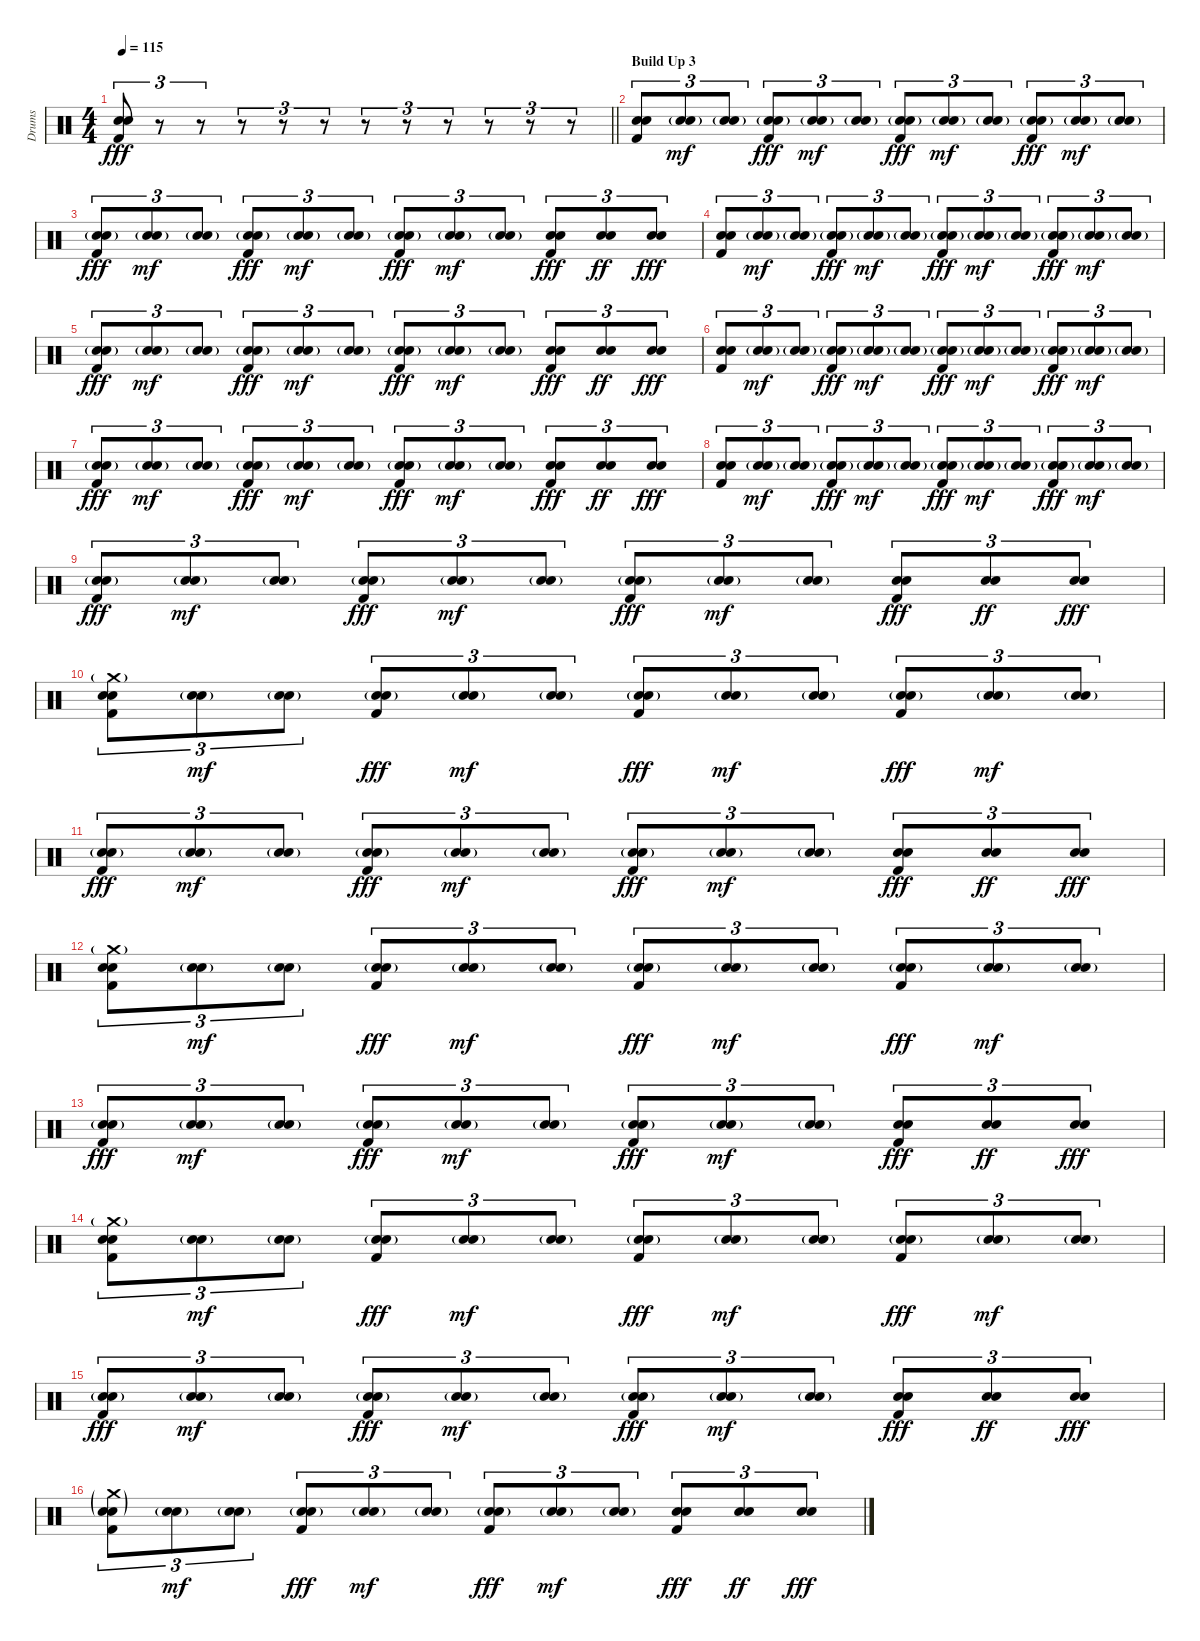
\track ("Drums" "Drums") {instrument percussion}
\staff {score}
\articulation defaults
\ts (4 4)
\tempo 115
\clef neutral
\barLineRight lightlight
\ks c
("Snare (hit) 2" "Electric Snare (hit)" "Kick (hit) 2").8{tu (3 2) dy fff} r.8{tu (3 2)} r.8{tu (3 2)} r.8{tu (3 2)} r.8{tu (3 2)} r.8{tu (3 2)} r.8{tu (3 2)} r.8{tu (3 2)} r.8{tu (3 2)} r.8{tu (3 2)} r.8{tu (3 2)} r.8{tu (3 2)} |
\section ("" "Build Up 3")
("Snare (hit) 2" "Electric Snare (hit)" "Kick (hit) 2").8{tu (3 2)} ("Snare (hit) 2"{g} "Electric Snare (hit)").8{tu (3 2) dy mf} ("Snare (hit) 2"{g} "Electric Snare (hit)").8{tu (3 2)} ("Snare (hit) 2"{g} "Electric Snare (hit)" "Kick (hit) 2").8{tu (3 2) dy fff} ("Snare (hit) 2"{g} "Electric Snare (hit)").8{tu (3 2) dy mf} ("Snare (hit) 2"{g} "Electric Snare (hit)").8{tu (3 2)} ("Snare (hit) 2"{g} "Electric Snare (hit)" "Kick (hit) 2").8{tu (3 2) dy fff} ("Snare (hit) 2"{g} "Electric Snare (hit)").8{tu (3 2) dy mf} ("Snare (hit) 2"{g} "Electric Snare (hit)").8{tu (3 2)} ("Snare (hit) 2"{g} "Electric Snare (hit)" "Kick (hit) 2").8{tu (3 2) dy fff} ("Snare (hit) 2"{g} "Electric Snare (hit)").8{tu (3 2) dy mf} ("Snare (hit) 2"{g} "Electric Snare (hit)").8{tu (3 2)} |
("Snare (hit) 2"{g} "Electric Snare (hit)" "Kick (hit) 2").8{tu (3 2) dy fff} ("Snare (hit) 2"{g} "Electric Snare (hit)").8{tu (3 2) dy mf} ("Snare (hit) 2"{g} "Electric Snare (hit)").8{tu (3 2)} ("Snare (hit) 2"{g} "Electric Snare (hit)" "Kick (hit) 2").8{tu (3 2) dy fff} ("Snare (hit) 2"{g} "Electric Snare (hit)").8{tu (3 2) dy mf} ("Snare (hit) 2"{g} "Electric Snare (hit)").8{tu (3 2)} ("Snare (hit) 2"{g} "Electric Snare (hit)" "Kick (hit) 2").8{tu (3 2) dy fff} ("Snare (hit) 2"{g} "Electric Snare (hit)").8{tu (3 2) dy mf} ("Snare (hit) 2"{g} "Electric Snare (hit)").8{tu (3 2)} ("Snare (hit) 2" "Electric Snare (hit)" "Kick (hit) 2").8{tu (3 2) dy fff} ("Snare (hit) 2" "Electric Snare (hit)").8{tu (3 2) dy ff} ("Snare (hit) 2" "Electric Snare (hit)").8{tu (3 2) dy fff} |
("Snare (hit) 2" "Electric Snare (hit)" "Kick (hit) 2").8{tu (3 2)} ("Snare (hit) 2"{g} "Electric Snare (hit)").8{tu (3 2) dy mf} ("Snare (hit) 2"{g} "Electric Snare (hit)").8{tu (3 2)} ("Snare (hit) 2"{g} "Electric Snare (hit)" "Kick (hit) 2").8{tu (3 2) dy fff} ("Snare (hit) 2"{g} "Electric Snare (hit)").8{tu (3 2) dy mf} ("Snare (hit) 2"{g} "Electric Snare (hit)").8{tu (3 2)} ("Snare (hit) 2"{g} "Electric Snare (hit)" "Kick (hit) 2").8{tu (3 2) dy fff} ("Snare (hit) 2"{g} "Electric Snare (hit)").8{tu (3 2) dy mf} ("Snare (hit) 2"{g} "Electric Snare (hit)").8{tu (3 2)} ("Snare (hit) 2"{g} "Electric Snare (hit)" "Kick (hit) 2").8{tu (3 2) dy fff} ("Snare (hit) 2"{g} "Electric Snare (hit)").8{tu (3 2) dy mf} ("Snare (hit) 2"{g} "Electric Snare (hit)").8{tu (3 2)} |
("Snare (hit) 2"{g} "Electric Snare (hit)" "Kick (hit) 2").8{tu (3 2) dy fff} ("Snare (hit) 2"{g} "Electric Snare (hit)").8{tu (3 2) dy mf} ("Snare (hit) 2"{g} "Electric Snare (hit)").8{tu (3 2)} ("Snare (hit) 2"{g} "Electric Snare (hit)" "Kick (hit) 2").8{tu (3 2) dy fff} ("Snare (hit) 2"{g} "Electric Snare (hit)").8{tu (3 2) dy mf} ("Snare (hit) 2"{g} "Electric Snare (hit)").8{tu (3 2)} ("Snare (hit) 2"{g} "Electric Snare (hit)" "Kick (hit) 2").8{tu (3 2) dy fff} ("Snare (hit) 2"{g} "Electric Snare (hit)").8{tu (3 2) dy mf} ("Snare (hit) 2"{g} "Electric Snare (hit)").8{tu (3 2)} ("Snare (hit) 2" "Electric Snare (hit)" "Kick (hit) 2").8{tu (3 2) dy fff} ("Snare (hit) 2" "Electric Snare (hit)").8{tu (3 2) dy ff} ("Snare (hit) 2" "Electric Snare (hit)").8{tu (3 2) dy fff} |
("Snare (hit) 2" "Electric Snare (hit)" "Kick (hit) 2").8{tu (3 2)} ("Snare (hit) 2"{g} "Electric Snare (hit)").8{tu (3 2) dy mf} ("Snare (hit) 2"{g} "Electric Snare (hit)").8{tu (3 2)} ("Snare (hit) 2"{g} "Electric Snare (hit)" "Kick (hit) 2").8{tu (3 2) dy fff} ("Snare (hit) 2"{g} "Electric Snare (hit)").8{tu (3 2) dy mf} ("Snare (hit) 2"{g} "Electric Snare (hit)").8{tu (3 2)} ("Snare (hit) 2"{g} "Electric Snare (hit)" "Kick (hit) 2").8{tu (3 2) dy fff} ("Snare (hit) 2"{g} "Electric Snare (hit)").8{tu (3 2) dy mf} ("Snare (hit) 2"{g} "Electric Snare (hit)").8{tu (3 2)} ("Snare (hit) 2"{g} "Electric Snare (hit)" "Kick (hit) 2").8{tu (3 2) dy fff} ("Snare (hit) 2"{g} "Electric Snare (hit)").8{tu (3 2) dy mf} ("Snare (hit) 2"{g} "Electric Snare (hit)").8{tu (3 2)} |
("Snare (hit) 2"{g} "Electric Snare (hit)" "Kick (hit) 2").8{tu (3 2) dy fff} ("Snare (hit) 2"{g} "Electric Snare (hit)").8{tu (3 2) dy mf} ("Snare (hit) 2"{g} "Electric Snare (hit)").8{tu (3 2)} ("Snare (hit) 2"{g} "Electric Snare (hit)" "Kick (hit) 2").8{tu (3 2) dy fff} ("Snare (hit) 2"{g} "Electric Snare (hit)").8{tu (3 2) dy mf} ("Snare (hit) 2"{g} "Electric Snare (hit)").8{tu (3 2)} ("Snare (hit) 2"{g} "Electric Snare (hit)" "Kick (hit) 2").8{tu (3 2) dy fff} ("Snare (hit) 2"{g} "Electric Snare (hit)").8{tu (3 2) dy mf} ("Snare (hit) 2"{g} "Electric Snare (hit)").8{tu (3 2)} ("Snare (hit) 2" "Electric Snare (hit)" "Kick (hit) 2").8{tu (3 2) dy fff} ("Snare (hit) 2" "Electric Snare (hit)").8{tu (3 2) dy ff} ("Snare (hit) 2" "Electric Snare (hit)").8{tu (3 2) dy fff} |
("Snare (hit) 2" "Electric Snare (hit)" "Kick (hit) 2").8{tu (3 2)} ("Snare (hit) 2"{g} "Electric Snare (hit)").8{tu (3 2) dy mf} ("Snare (hit) 2"{g} "Electric Snare (hit)").8{tu (3 2)} ("Snare (hit) 2"{g} "Electric Snare (hit)" "Kick (hit) 2").8{tu (3 2) dy fff} ("Snare (hit) 2"{g} "Electric Snare (hit)").8{tu (3 2) dy mf} ("Snare (hit) 2"{g} "Electric Snare (hit)").8{tu (3 2)} ("Snare (hit) 2"{g} "Electric Snare (hit)" "Kick (hit) 2").8{tu (3 2) dy fff} ("Snare (hit) 2"{g} "Electric Snare (hit)").8{tu (3 2) dy mf} ("Snare (hit) 2"{g} "Electric Snare (hit)").8{tu (3 2)} ("Snare (hit) 2"{g} "Electric Snare (hit)" "Kick (hit) 2").8{tu (3 2) dy fff} ("Snare (hit) 2"{g} "Electric Snare (hit)").8{tu (3 2) dy mf} ("Snare (hit) 2"{g} "Electric Snare (hit)").8{tu (3 2)} |
("Snare (hit) 2"{g} "Electric Snare (hit)" "Kick (hit) 2").8{tu (3 2) dy fff} ("Snare (hit) 2"{g} "Electric Snare (hit)").8{tu (3 2) dy mf} ("Snare (hit) 2"{g} "Electric Snare (hit)").8{tu (3 2)} ("Snare (hit) 2"{g} "Electric Snare (hit)" "Kick (hit) 2").8{tu (3 2) dy fff} ("Snare (hit) 2"{g} "Electric Snare (hit)").8{tu (3 2) dy mf} ("Snare (hit) 2"{g} "Electric Snare (hit)").8{tu (3 2)} ("Snare (hit) 2"{g} "Electric Snare (hit)" "Kick (hit) 2").8{tu (3 2) dy fff} ("Snare (hit) 2"{g} "Electric Snare (hit)").8{tu (3 2) dy mf} ("Snare (hit) 2"{g} "Electric Snare (hit)").8{tu (3 2)} ("Snare (hit) 2" "Electric Snare (hit)" "Kick (hit) 2").8{tu (3 2) dy fff} ("Snare (hit) 2" "Electric Snare (hit)").8{tu (3 2) dy ff} ("Snare (hit) 2" "Electric Snare (hit)").8{tu (3 2) dy fff} |
("Crash medium (hit)"{g} "Snare (hit) 2" "Electric Snare (hit)" "Kick (hit) 2").8{tu (3 2)} ("Snare (hit) 2"{g} "Electric Snare (hit)").8{tu (3 2) dy mf} ("Snare (hit) 2"{g} "Electric Snare (hit)").8{tu (3 2)} ("Snare (hit) 2"{g} "Electric Snare (hit)" "Kick (hit) 2").8{tu (3 2) dy fff} ("Snare (hit) 2"{g} "Electric Snare (hit)").8{tu (3 2) dy mf} ("Snare (hit) 2"{g} "Electric Snare (hit)").8{tu (3 2)} ("Snare (hit) 2"{g} "Electric Snare (hit)" "Kick (hit) 2").8{tu (3 2) dy fff} ("Snare (hit) 2"{g} "Electric Snare (hit)").8{tu (3 2) dy mf} ("Snare (hit) 2"{g} "Electric Snare (hit)").8{tu (3 2)} ("Snare (hit) 2"{g} "Electric Snare (hit)" "Kick (hit) 2").8{tu (3 2) dy fff} ("Snare (hit) 2"{g} "Electric Snare (hit)").8{tu (3 2) dy mf} ("Snare (hit) 2"{g} "Electric Snare (hit)").8{tu (3 2)} |
("Snare (hit) 2"{g} "Electric Snare (hit)" "Kick (hit) 2").8{tu (3 2) dy fff} ("Snare (hit) 2"{g} "Electric Snare (hit)").8{tu (3 2) dy mf} ("Snare (hit) 2"{g} "Electric Snare (hit)").8{tu (3 2)} ("Snare (hit) 2"{g} "Electric Snare (hit)" "Kick (hit) 2").8{tu (3 2) dy fff} ("Snare (hit) 2"{g} "Electric Snare (hit)").8{tu (3 2) dy mf} ("Snare (hit) 2"{g} "Electric Snare (hit)").8{tu (3 2)} ("Snare (hit) 2"{g} "Electric Snare (hit)" "Kick (hit) 2").8{tu (3 2) dy fff} ("Snare (hit) 2"{g} "Electric Snare (hit)").8{tu (3 2) dy mf} ("Snare (hit) 2"{g} "Electric Snare (hit)").8{tu (3 2)} ("Snare (hit) 2" "Electric Snare (hit)" "Kick (hit) 2").8{tu (3 2) dy fff} ("Snare (hit) 2" "Electric Snare (hit)").8{tu (3 2) dy ff} ("Snare (hit) 2" "Electric Snare (hit)").8{tu (3 2) dy fff} |
("Crash medium (hit)"{g} "Snare (hit) 2" "Electric Snare (hit)" "Kick (hit) 2").8{tu (3 2)} ("Snare (hit) 2"{g} "Electric Snare (hit)").8{tu (3 2) dy mf} ("Snare (hit) 2"{g} "Electric Snare (hit)").8{tu (3 2)} ("Snare (hit) 2"{g} "Electric Snare (hit)" "Kick (hit) 2").8{tu (3 2) dy fff} ("Snare (hit) 2"{g} "Electric Snare (hit)").8{tu (3 2) dy mf} ("Snare (hit) 2"{g} "Electric Snare (hit)").8{tu (3 2)} ("Snare (hit) 2"{g} "Electric Snare (hit)" "Kick (hit) 2").8{tu (3 2) dy fff} ("Snare (hit) 2"{g} "Electric Snare (hit)").8{tu (3 2) dy mf} ("Snare (hit) 2"{g} "Electric Snare (hit)").8{tu (3 2)} ("Snare (hit) 2"{g} "Electric Snare (hit)" "Kick (hit) 2").8{tu (3 2) dy fff} ("Snare (hit) 2"{g} "Electric Snare (hit)").8{tu (3 2) dy mf} ("Snare (hit) 2"{g} "Electric Snare (hit)").8{tu (3 2)} |
("Snare (hit) 2"{g} "Electric Snare (hit)" "Kick (hit) 2").8{tu (3 2) dy fff} ("Snare (hit) 2"{g} "Electric Snare (hit)").8{tu (3 2) dy mf} ("Snare (hit) 2"{g} "Electric Snare (hit)").8{tu (3 2)} ("Snare (hit) 2"{g} "Electric Snare (hit)" "Kick (hit) 2").8{tu (3 2) dy fff} ("Snare (hit) 2"{g} "Electric Snare (hit)").8{tu (3 2) dy mf} ("Snare (hit) 2"{g} "Electric Snare (hit)").8{tu (3 2)} ("Snare (hit) 2"{g} "Electric Snare (hit)" "Kick (hit) 2").8{tu (3 2) dy fff} ("Snare (hit) 2"{g} "Electric Snare (hit)").8{tu (3 2) dy mf} ("Snare (hit) 2"{g} "Electric Snare (hit)").8{tu (3 2)} ("Snare (hit) 2" "Electric Snare (hit)" "Kick (hit) 2").8{tu (3 2) dy fff} ("Snare (hit) 2" "Electric Snare (hit)").8{tu (3 2) dy ff} ("Snare (hit) 2" "Electric Snare (hit)").8{tu (3 2) dy fff} |
("Crash medium (hit)"{g} "Snare (hit) 2" "Electric Snare (hit)" "Kick (hit) 2").8{tu (3 2)} ("Snare (hit) 2"{g} "Electric Snare (hit)").8{tu (3 2) dy mf} ("Snare (hit) 2"{g} "Electric Snare (hit)").8{tu (3 2)} ("Snare (hit) 2"{g} "Electric Snare (hit)" "Kick (hit) 2").8{tu (3 2) dy fff} ("Snare (hit) 2"{g} "Electric Snare (hit)").8{tu (3 2) dy mf} ("Snare (hit) 2"{g} "Electric Snare (hit)").8{tu (3 2)} ("Snare (hit) 2"{g} "Electric Snare (hit)" "Kick (hit) 2").8{tu (3 2) dy fff} ("Snare (hit) 2"{g} "Electric Snare (hit)").8{tu (3 2) dy mf} ("Snare (hit) 2"{g} "Electric Snare (hit)").8{tu (3 2)} ("Snare (hit) 2"{g} "Electric Snare (hit)" "Kick (hit) 2").8{tu (3 2) dy fff} ("Snare (hit) 2"{g} "Electric Snare (hit)").8{tu (3 2) dy mf} ("Snare (hit) 2"{g} "Electric Snare (hit)").8{tu (3 2)} |
("Snare (hit) 2"{g} "Electric Snare (hit)" "Kick (hit) 2").8{tu (3 2) dy fff} ("Snare (hit) 2"{g} "Electric Snare (hit)").8{tu (3 2) dy mf} ("Snare (hit) 2"{g} "Electric Snare (hit)").8{tu (3 2)} ("Snare (hit) 2"{g} "Electric Snare (hit)" "Kick (hit) 2").8{tu (3 2) dy fff} ("Snare (hit) 2"{g} "Electric Snare (hit)").8{tu (3 2) dy mf} ("Snare (hit) 2"{g} "Electric Snare (hit)").8{tu (3 2)} ("Snare (hit) 2"{g} "Electric Snare (hit)" "Kick (hit) 2").8{tu (3 2) dy fff} ("Snare (hit) 2"{g} "Electric Snare (hit)").8{tu (3 2) dy mf} ("Snare (hit) 2"{g} "Electric Snare (hit)").8{tu (3 2)} ("Snare (hit) 2" "Electric Snare (hit)" "Kick (hit) 2").8{tu (3 2) dy fff} ("Snare (hit) 2" "Electric Snare (hit)").8{tu (3 2) dy ff} ("Snare (hit) 2" "Electric Snare (hit)").8{tu (3 2) dy fff} |
("Crash medium (hit)"{g} "Snare (hit) 2"{g} "Electric Snare (hit)" "Kick (hit) 2").8{tu (3 2)} ("Snare (hit) 2"{g} "Electric Snare (hit)").8{tu (3 2) dy mf} ("Snare (hit) 2"{g} "Electric Snare (hit)").8{tu (3 2)} ("Snare (hit) 2"{g} "Electric Snare (hit)" "Kick (hit) 2").8{tu (3 2) dy fff} ("Snare (hit) 2"{g} "Electric Snare (hit)").8{tu (3 2) dy mf} ("Snare (hit) 2"{g} "Electric Snare (hit)").8{tu (3 2)} ("Snare (hit) 2"{g} "Electric Snare (hit)" "Kick (hit) 2").8{tu (3 2) dy fff} ("Snare (hit) 2"{g} "Electric Snare (hit)").8{tu (3 2) dy mf} ("Snare (hit) 2"{g} "Electric Snare (hit)").8{tu (3 2)} ("Snare (hit) 2" "Electric Snare (hit)" "Kick (hit) 2").8{tu (3 2) dy fff} ("Snare (hit) 2" "Electric Snare (hit)").8{tu (3 2) dy ff} ("Snare (hit) 2" "Electric Snare (hit)").8{tu (3 2) dy fff}
